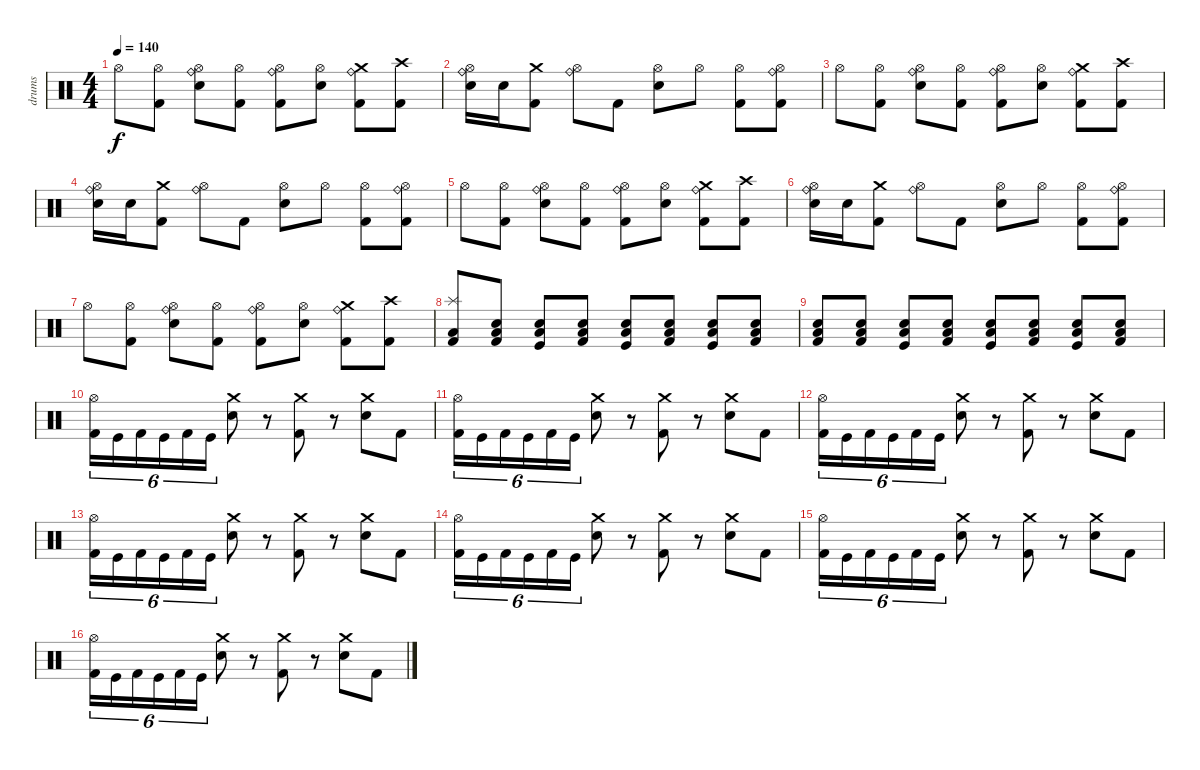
\track ("drums" "drums") {instrument percussion}
\staff {score}
\articulation defaults
\ts (4 4)
\tempo 140
\clef neutral
\ks c "Hi-Hat (open)".8{dy f}
("Hi-Hat (open)" "Kick (hit) 2").8 ("Ride (bell)" "Hi-Hat (open)" "Snare (hit) 2").8 ("Hi-Hat (open)" "Kick (hit) 2").8 ("Ride (bell)" "Hi-Hat (open)" "Kick (hit) 2").8 ("Hi-Hat (open)" "Snare (hit) 2").8 ("Ride (bell)" "Crash medium (hit)" "Kick (hit) 2").8 ("Crash high (hit)" "Kick (hit) 2").8 |
("Ride (bell)" "Hi-Hat (open)" "Snare (hit) 2").16 "Snare (hit) 2".16 ("Crash medium (hit)" "Kick (hit) 2").8 ("Ride (bell)" "Hi-Hat (open)").8 "Kick (hit) 2".8 ("Hi-Hat (open)" "Snare (hit) 2").8 "Hi-Hat (open)".8 ("Hi-Hat (open)" "Kick (hit) 2").8 ("Ride (bell)" "Hi-Hat (open)" "Kick (hit) 2").8 |
"Hi-Hat (open)".8 ("Hi-Hat (open)" "Kick (hit) 2").8 ("Ride (bell)" "Hi-Hat (open)" "Snare (hit) 2").8 ("Hi-Hat (open)" "Kick (hit) 2").8 ("Ride (bell)" "Hi-Hat (open)" "Kick (hit) 2").8 ("Hi-Hat (open)" "Snare (hit) 2").8 ("Ride (bell)" "Crash medium (hit)" "Kick (hit) 2").8 ("Crash high (hit)" "Kick (hit) 2").8 |
("Ride (bell)" "Hi-Hat (open)" "Snare (hit) 2").16 "Snare (hit) 2".16 ("Crash medium (hit)" "Kick (hit) 2").8 ("Ride (bell)" "Hi-Hat (open)").8 "Kick (hit) 2".8 ("Hi-Hat (open)" "Snare (hit) 2").8 "Hi-Hat (open)".8 ("Hi-Hat (open)" "Kick (hit) 2").8 ("Ride (bell)" "Hi-Hat (open)" "Kick (hit) 2").8 |
"Hi-Hat (open)".8 ("Hi-Hat (open)" "Kick (hit) 2").8 ("Ride (bell)" "Hi-Hat (open)" "Snare (hit) 2").8 ("Hi-Hat (open)" "Kick (hit) 2").8 ("Ride (bell)" "Hi-Hat (open)" "Kick (hit) 2").8 ("Hi-Hat (open)" "Snare (hit) 2").8 ("Ride (bell)" "Crash medium (hit)" "Kick (hit) 2").8 ("Crash high (hit)" "Kick (hit) 2").8 |
("Ride (bell)" "Hi-Hat (open)" "Snare (hit) 2").16 "Snare (hit) 2".16 ("Crash medium (hit)" "Kick (hit) 2").8 ("Ride (bell)" "Hi-Hat (open)").8 "Kick (hit) 2".8 ("Hi-Hat (open)" "Snare (hit) 2").8 "Hi-Hat (open)".8 ("Hi-Hat (open)" "Kick (hit) 2").8 ("Ride (bell)" "Hi-Hat (open)" "Kick (hit) 2").8 |
"Hi-Hat (open)".8 ("Hi-Hat (open)" "Kick (hit) 2").8 ("Ride (bell)" "Hi-Hat (open)" "Snare (hit) 2").8 ("Hi-Hat (open)" "Kick (hit) 2").8 ("Ride (bell)" "Hi-Hat (open)" "Kick (hit) 2").8 ("Hi-Hat (open)" "Snare (hit) 2").8 ("Ride (bell)" "Crash medium (hit)" "Kick (hit) 2").8 ("Crash high (hit)" "Kick (hit) 2").8 |
("Splash (hit)" "Kick (hit) 2" "Low Floor Tom (hit)").8 ("Snare (hit) 2" "Kick (hit) 2" "Low Floor Tom (hit)").8 ("Snare (hit) 2" "Kick (hit)" "Low Floor Tom (hit)").8 ("Snare (hit) 2" "Kick (hit) 2" "Low Floor Tom (hit)").8 ("Snare (hit) 2" "Kick (hit)" "Low Floor Tom (hit)").8 ("Snare (hit) 2" "Kick (hit) 2" "Low Floor Tom (hit)").8 ("Snare (hit) 2" "Kick (hit)" "Low Floor Tom (hit)").8 ("Snare (hit) 2" "Kick (hit) 2" "Low Floor Tom (hit)").8 |
("Snare (hit) 2" "Kick (hit) 2" "Low Floor Tom (hit)").8 ("Snare (hit) 2" "Kick (hit) 2" "Low Floor Tom (hit)").8 ("Snare (hit) 2" "Kick (hit)" "Low Floor Tom (hit)").8 ("Snare (hit) 2" "Kick (hit) 2" "Low Floor Tom (hit)").8 ("Snare (hit) 2" "Kick (hit)" "Low Floor Tom (hit)").8 ("Snare (hit) 2" "Kick (hit) 2" "Low Floor Tom (hit)").8 ("Snare (hit) 2" "Kick (hit)" "Low Floor Tom (hit)").8 ("Snare (hit) 2" "Kick (hit) 2" "Low Floor Tom (hit)").8 |
("Hi-Hat (open)" "Kick (hit) 2").16{tu (6 4)} "Kick (hit)".16{tu (6 4)} "Kick (hit) 2".16{tu (6 4)} "Kick (hit)".16{tu (6 4)} "Kick (hit) 2".16{tu (6 4)} "Kick (hit)".16{tu (6 4)} ("Crash medium (hit)" "Snare (hit) 2").8 r.8 ("Crash medium (hit)" "Kick (hit) 2").8 r.8 ("Crash medium (hit)" "Snare (hit) 2").8 "Kick (hit) 2".8 |
("Hi-Hat (open)" "Kick (hit) 2").16{tu (6 4)} "Kick (hit)".16{tu (6 4)} "Kick (hit) 2".16{tu (6 4)} "Kick (hit)".16{tu (6 4)} "Kick (hit) 2".16{tu (6 4)} "Kick (hit)".16{tu (6 4)} ("Crash medium (hit)" "Snare (hit) 2").8 r.8 ("Crash medium (hit)" "Kick (hit) 2").8 r.8 ("Crash medium (hit)" "Snare (hit) 2").8 "Kick (hit) 2".8 |
("Hi-Hat (open)" "Kick (hit) 2").16{tu (6 4)} "Kick (hit)".16{tu (6 4)} "Kick (hit) 2".16{tu (6 4)} "Kick (hit)".16{tu (6 4)} "Kick (hit) 2".16{tu (6 4)} "Kick (hit)".16{tu (6 4)} ("Crash medium (hit)" "Snare (hit) 2").8 r.8 ("Crash medium (hit)" "Kick (hit) 2").8 r.8 ("Crash medium (hit)" "Snare (hit) 2").8 "Kick (hit) 2".8 |
("Hi-Hat (open)" "Kick (hit) 2").16{tu (6 4)} "Kick (hit)".16{tu (6 4)} "Kick (hit) 2".16{tu (6 4)} "Kick (hit)".16{tu (6 4)} "Kick (hit) 2".16{tu (6 4)} "Kick (hit)".16{tu (6 4)} ("Crash medium (hit)" "Snare (hit) 2").8 r.8 ("Crash medium (hit)" "Kick (hit) 2").8 r.8 ("Crash medium (hit)" "Snare (hit) 2").8 "Kick (hit) 2".8 |
("Hi-Hat (open)" "Kick (hit) 2").16{tu (6 4)} "Kick (hit)".16{tu (6 4)} "Kick (hit) 2".16{tu (6 4)} "Kick (hit)".16{tu (6 4)} "Kick (hit) 2".16{tu (6 4)} "Kick (hit)".16{tu (6 4)} ("Crash medium (hit)" "Snare (hit) 2").8 r.8 ("Crash medium (hit)" "Kick (hit) 2").8 r.8 ("Crash medium (hit)" "Snare (hit) 2").8 "Kick (hit) 2".8 |
("Hi-Hat (open)" "Kick (hit) 2").16{tu (6 4)} "Kick (hit)".16{tu (6 4)} "Kick (hit) 2".16{tu (6 4)} "Kick (hit)".16{tu (6 4)} "Kick (hit) 2".16{tu (6 4)} "Kick (hit)".16{tu (6 4)} ("Crash medium (hit)" "Snare (hit) 2").8 r.8 ("Crash medium (hit)" "Kick (hit) 2").8 r.8 ("Crash medium (hit)" "Snare (hit) 2").8 "Kick (hit) 2".8 |
("Hi-Hat (open)" "Kick (hit) 2").16{tu (6 4)} "Kick (hit)".16{tu (6 4)} "Kick (hit) 2".16{tu (6 4)} "Kick (hit)".16{tu (6 4)} "Kick (hit) 2".16{tu (6 4)} "Kick (hit)".16{tu (6 4)} ("Crash medium (hit)" "Snare (hit) 2").8 r.8 ("Crash medium (hit)" "Kick (hit) 2").8 r.8 ("Crash medium (hit)" "Snare (hit) 2").8 "Kick (hit) 2".8
